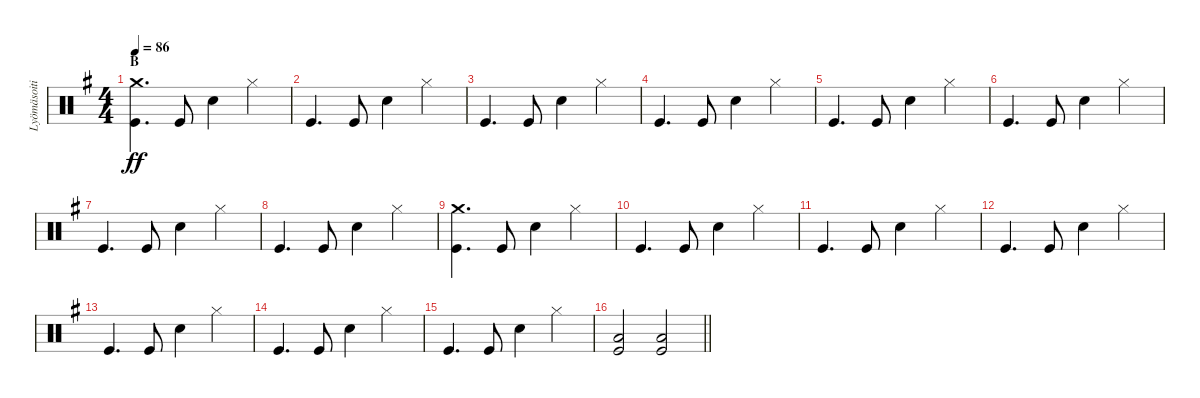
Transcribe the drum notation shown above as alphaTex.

\track ("Lyömäsoitin" "Lyömäsoiti") {instrument percussion}
\staff {score}
\articulation defaults
\ts (4 4)
\section ("" "B")
\tempo 86
\clef neutral
\ks g
("Crash medium (hit)" "Kick (hit)").4{d dy ff} "Kick (hit)".8 "Snare (hit) 2".4 "Hi-Hat (closed)".4 |
"Kick (hit)".4{d} "Kick (hit)".8 "Snare (hit) 2".4 "Hi-Hat (closed)".4 |
"Kick (hit)".4{d} "Kick (hit)".8 "Snare (hit) 2".4 "Hi-Hat (closed)".4 |
"Kick (hit)".4{d} "Kick (hit)".8 "Snare (hit) 2".4 "Hi-Hat (closed)".4 |
"Kick (hit)".4{d} "Kick (hit)".8 "Snare (hit) 2".4 "Hi-Hat (closed)".4 |
"Kick (hit)".4{d} "Kick (hit)".8 "Snare (hit) 2".4 "Hi-Hat (closed)".4 |
"Kick (hit)".4{d} "Kick (hit)".8 "Snare (hit) 2".4 "Hi-Hat (closed)".4 |
"Kick (hit)".4{d} "Kick (hit)".8 "Snare (hit) 2".4 "Hi-Hat (closed)".4 |
("Crash medium (hit)" "Kick (hit)").4{d} "Kick (hit)".8 "Snare (hit) 2".4 "Hi-Hat (closed)".4 |
"Kick (hit)".4{d} "Kick (hit)".8 "Snare (hit) 2".4 "Hi-Hat (closed)".4 |
"Kick (hit)".4{d} "Kick (hit)".8 "Snare (hit) 2".4 "Hi-Hat (closed)".4 |
"Kick (hit)".4{d} "Kick (hit)".8 "Snare (hit) 2".4 "Hi-Hat (closed)".4 |
"Kick (hit)".4{d} "Kick (hit)".8 "Snare (hit) 2".4 "Hi-Hat (closed)".4 |
"Kick (hit)".4{d} "Kick (hit)".8 "Snare (hit) 2".4 "Hi-Hat (closed)".4 |
"Kick (hit)".4{d} "Kick (hit)".8 "Snare (hit) 2".4 "Hi-Hat (closed)".4 |
\barLineRight lightlight
("Kick (hit)" "Low Floor Tom (hit)").2 ("Kick (hit)" "Low Floor Tom (hit)").2
